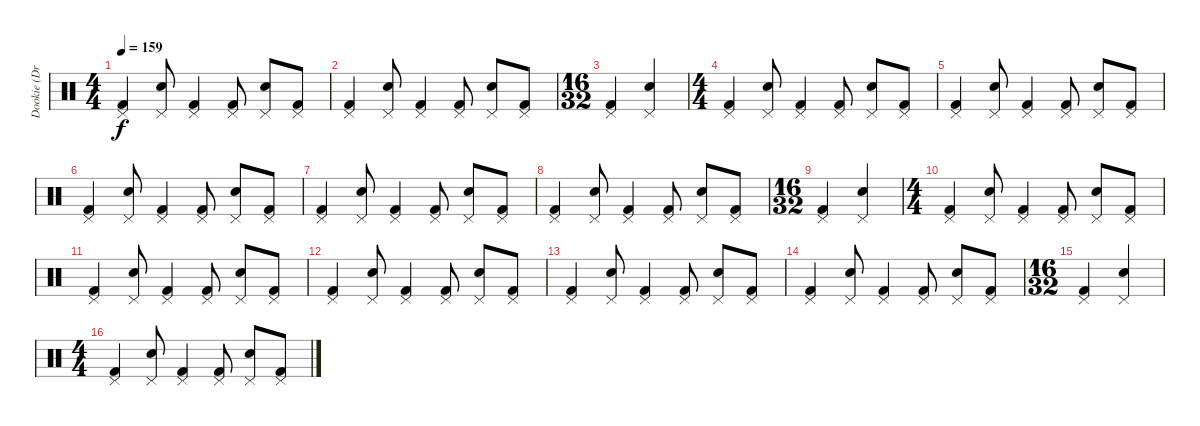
\track ("Dookie (Drums)" "Dookie (Dr") {instrument percussion}
\staff {score}
\articulation defaults
\ts (4 4)
\tempo 159
\clef neutral
\ks c
("Kick (hit) 2" "Pedal Hi-Hat (hit)").4{dy f} ("Electric Snare (hit)" "Pedal Hi-Hat (hit)").8 ("Kick (hit) 2" "Pedal Hi-Hat (hit)").4 ("Kick (hit) 2" "Pedal Hi-Hat (hit)").8 ("Electric Snare (hit)" "Pedal Hi-Hat (hit)").8 ("Kick (hit) 2" "Pedal Hi-Hat (hit)").8 |
("Kick (hit) 2" "Pedal Hi-Hat (hit)").4 ("Electric Snare (hit)" "Pedal Hi-Hat (hit)").8 ("Kick (hit) 2" "Pedal Hi-Hat (hit)").4 ("Kick (hit) 2" "Pedal Hi-Hat (hit)").8 ("Electric Snare (hit)" "Pedal Hi-Hat (hit)").8 ("Kick (hit) 2" "Pedal Hi-Hat (hit)").8 |
\ts (16 32)
("Kick (hit) 2" "Pedal Hi-Hat (hit)").4 ("Electric Snare (hit)" "Pedal Hi-Hat (hit)").4 |
\ts (4 4)
("Kick (hit) 2" "Pedal Hi-Hat (hit)").4 ("Electric Snare (hit)" "Pedal Hi-Hat (hit)").8 ("Kick (hit) 2" "Pedal Hi-Hat (hit)").4 ("Kick (hit) 2" "Pedal Hi-Hat (hit)").8 ("Electric Snare (hit)" "Pedal Hi-Hat (hit)").8 ("Kick (hit) 2" "Pedal Hi-Hat (hit)").8 |
("Kick (hit) 2" "Pedal Hi-Hat (hit)").4 ("Electric Snare (hit)" "Pedal Hi-Hat (hit)").8 ("Kick (hit) 2" "Pedal Hi-Hat (hit)").4 ("Kick (hit) 2" "Pedal Hi-Hat (hit)").8 ("Electric Snare (hit)" "Pedal Hi-Hat (hit)").8 ("Kick (hit) 2" "Pedal Hi-Hat (hit)").8 |
("Kick (hit) 2" "Pedal Hi-Hat (hit)").4 ("Electric Snare (hit)" "Pedal Hi-Hat (hit)").8 ("Kick (hit) 2" "Pedal Hi-Hat (hit)").4 ("Kick (hit) 2" "Pedal Hi-Hat (hit)").8 ("Electric Snare (hit)" "Pedal Hi-Hat (hit)").8 ("Kick (hit) 2" "Pedal Hi-Hat (hit)").8 |
("Kick (hit) 2" "Pedal Hi-Hat (hit)").4 ("Electric Snare (hit)" "Pedal Hi-Hat (hit)").8 ("Kick (hit) 2" "Pedal Hi-Hat (hit)").4 ("Kick (hit) 2" "Pedal Hi-Hat (hit)").8 ("Electric Snare (hit)" "Pedal Hi-Hat (hit)").8 ("Kick (hit) 2" "Pedal Hi-Hat (hit)").8 |
("Kick (hit) 2" "Pedal Hi-Hat (hit)").4 ("Electric Snare (hit)" "Pedal Hi-Hat (hit)").8 ("Kick (hit) 2" "Pedal Hi-Hat (hit)").4 ("Kick (hit) 2" "Pedal Hi-Hat (hit)").8 ("Electric Snare (hit)" "Pedal Hi-Hat (hit)").8 ("Kick (hit) 2" "Pedal Hi-Hat (hit)").8 |
\ts (16 32)
("Kick (hit) 2" "Pedal Hi-Hat (hit)").4 ("Electric Snare (hit)" "Pedal Hi-Hat (hit)").4 |
\ts (4 4)
("Kick (hit) 2" "Pedal Hi-Hat (hit)").4 ("Electric Snare (hit)" "Pedal Hi-Hat (hit)").8 ("Kick (hit) 2" "Pedal Hi-Hat (hit)").4 ("Kick (hit) 2" "Pedal Hi-Hat (hit)").8 ("Electric Snare (hit)" "Pedal Hi-Hat (hit)").8 ("Kick (hit) 2" "Pedal Hi-Hat (hit)").8 |
("Kick (hit) 2" "Pedal Hi-Hat (hit)").4 ("Electric Snare (hit)" "Pedal Hi-Hat (hit)").8 ("Kick (hit) 2" "Pedal Hi-Hat (hit)").4 ("Kick (hit) 2" "Pedal Hi-Hat (hit)").8 ("Electric Snare (hit)" "Pedal Hi-Hat (hit)").8 ("Kick (hit) 2" "Pedal Hi-Hat (hit)").8 |
("Kick (hit) 2" "Pedal Hi-Hat (hit)").4 ("Electric Snare (hit)" "Pedal Hi-Hat (hit)").8 ("Kick (hit) 2" "Pedal Hi-Hat (hit)").4 ("Kick (hit) 2" "Pedal Hi-Hat (hit)").8 ("Electric Snare (hit)" "Pedal Hi-Hat (hit)").8 ("Kick (hit) 2" "Pedal Hi-Hat (hit)").8 |
("Kick (hit) 2" "Pedal Hi-Hat (hit)").4 ("Electric Snare (hit)" "Pedal Hi-Hat (hit)").8 ("Kick (hit) 2" "Pedal Hi-Hat (hit)").4 ("Kick (hit) 2" "Pedal Hi-Hat (hit)").8 ("Electric Snare (hit)" "Pedal Hi-Hat (hit)").8 ("Kick (hit) 2" "Pedal Hi-Hat (hit)").8 |
("Kick (hit) 2" "Pedal Hi-Hat (hit)").4 ("Electric Snare (hit)" "Pedal Hi-Hat (hit)").8 ("Kick (hit) 2" "Pedal Hi-Hat (hit)").4 ("Kick (hit) 2" "Pedal Hi-Hat (hit)").8 ("Electric Snare (hit)" "Pedal Hi-Hat (hit)").8 ("Kick (hit) 2" "Pedal Hi-Hat (hit)").8 |
\ts (16 32)
("Kick (hit) 2" "Pedal Hi-Hat (hit)").4 ("Electric Snare (hit)" "Pedal Hi-Hat (hit)").4 |
\ts (4 4)
("Kick (hit) 2" "Pedal Hi-Hat (hit)").4 ("Electric Snare (hit)" "Pedal Hi-Hat (hit)").8 ("Kick (hit) 2" "Pedal Hi-Hat (hit)").4 ("Kick (hit) 2" "Pedal Hi-Hat (hit)").8 ("Electric Snare (hit)" "Pedal Hi-Hat (hit)").8 ("Kick (hit) 2" "Pedal Hi-Hat (hit)").8
